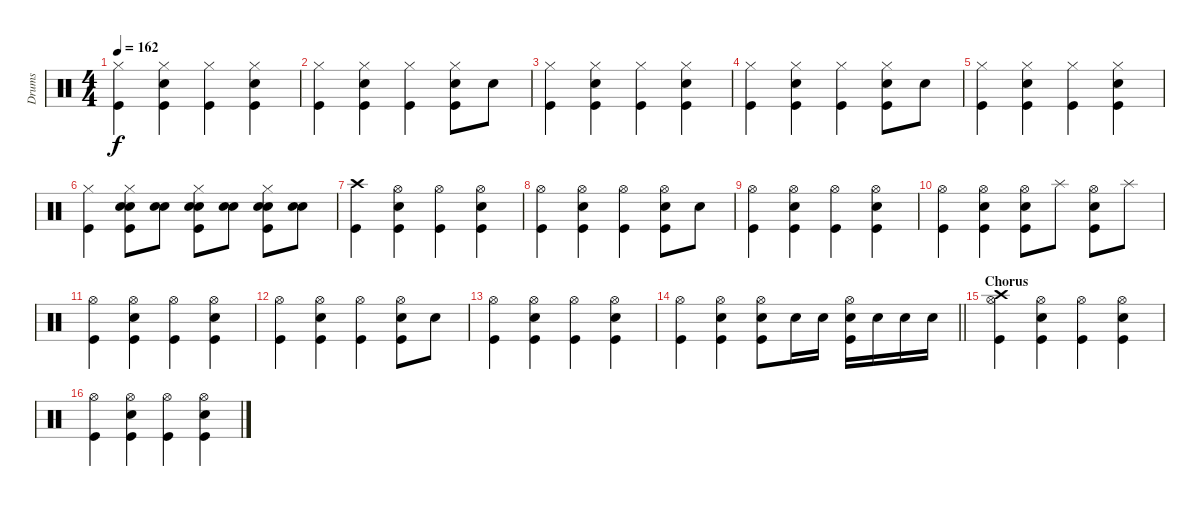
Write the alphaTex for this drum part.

\track ("Drums" "Drums") {instrument percussion}
\staff {score}
\articulation defaults
\ts (4 4)
\tempo 162
\clef neutral
\ks c
("Hi-Hat (closed)" "Kick (hit)").4{dy f} ("Hi-Hat (closed)" "Snare (hit) 2" "Kick (hit)").4 ("Hi-Hat (closed)" "Kick (hit)").4 ("Hi-Hat (closed)" "Snare (hit) 2" "Kick (hit)").4 |
("Hi-Hat (closed)" "Kick (hit)").4 ("Hi-Hat (closed)" "Snare (hit) 2" "Kick (hit)").4 ("Hi-Hat (closed)" "Kick (hit)").4 ("Hi-Hat (closed)" "Snare (hit) 2" "Kick (hit)").8 "Snare (hit) 2".8 |
("Hi-Hat (closed)" "Kick (hit)").4 ("Hi-Hat (closed)" "Snare (hit) 2" "Kick (hit)").4 ("Hi-Hat (closed)" "Kick (hit)").4 ("Hi-Hat (closed)" "Snare (hit) 2" "Kick (hit)").4 |
("Hi-Hat (closed)" "Kick (hit)").4 ("Hi-Hat (closed)" "Snare (hit) 2" "Kick (hit)").4 ("Hi-Hat (closed)" "Kick (hit)").4 ("Hi-Hat (closed)" "Snare (hit) 2" "Kick (hit)").8 "Snare (hit) 2".8 |
("Hi-Hat (closed)" "Kick (hit)").4 ("Hi-Hat (closed)" "Snare (hit) 2" "Kick (hit)").4 ("Hi-Hat (closed)" "Kick (hit)").4 ("Hi-Hat (closed)" "Snare (hit) 2" "Kick (hit)").4 |
("Hi-Hat (closed)" "Kick (hit)").4 ("Hi-Hat (closed)" "Snare (hit) 2" "Snare (hit) 2" "Kick (hit)").8 ("Snare (hit) 2" "Snare (hit) 2").8 ("Hi-Hat (closed)" "Snare (hit) 2" "Snare (hit) 2" "Kick (hit)").8 ("Snare (hit) 2" "Snare (hit) 2").8 ("Hi-Hat (closed)" "Snare (hit) 2" "Snare (hit) 2" "Kick (hit)").8 ("Snare (hit) 2" "Snare (hit) 2").8 |
("Crash high (hit)" "Kick (hit)").4 ("Hi-Hat (open)" "Snare (hit) 2" "Kick (hit)").4 ("Hi-Hat (open)" "Kick (hit)").4 ("Hi-Hat (open)" "Snare (hit) 2" "Kick (hit)").4 |
("Hi-Hat (open)" "Kick (hit)").4 ("Hi-Hat (open)" "Snare (hit) 2" "Kick (hit)").4 ("Hi-Hat (open)" "Kick (hit)").4 ("Hi-Hat (open)" "Snare (hit) 2" "Kick (hit)").8 "Snare (hit) 2".8 |
("Hi-Hat (open)" "Kick (hit)").4 ("Hi-Hat (open)" "Snare (hit) 2" "Kick (hit)").4 ("Hi-Hat (open)" "Kick (hit)").4 ("Hi-Hat (open)" "Snare (hit) 2" "Kick (hit)").4 |
("Hi-Hat (open)" "Kick (hit)").4 ("Hi-Hat (open)" "Snare (hit) 2" "Kick (hit)").4 ("Hi-Hat (open)" "Snare (hit) 2" "Kick (hit)").8 "Splash (hit)".8 ("Hi-Hat (open)" "Snare (hit) 2" "Kick (hit)").8 "Splash (hit)".8 |
("Hi-Hat (open)" "Kick (hit)").4 ("Hi-Hat (open)" "Snare (hit) 2" "Kick (hit)").4 ("Hi-Hat (open)" "Kick (hit)").4 ("Hi-Hat (open)" "Snare (hit) 2" "Kick (hit)").4 |
("Hi-Hat (open)" "Kick (hit)").4 ("Hi-Hat (open)" "Snare (hit) 2" "Kick (hit)").4 ("Hi-Hat (open)" "Kick (hit)").4 ("Hi-Hat (open)" "Snare (hit) 2" "Kick (hit)").8 "Snare (hit) 2".8 |
("Hi-Hat (open)" "Kick (hit)").4 ("Hi-Hat (open)" "Snare (hit) 2" "Kick (hit)").4 ("Hi-Hat (open)" "Kick (hit)").4 ("Hi-Hat (open)" "Snare (hit) 2" "Kick (hit)").4 |
\barLineRight lightlight
("Hi-Hat (open)" "Kick (hit)").4 ("Hi-Hat (open)" "Snare (hit) 2" "Kick (hit)").4 ("Hi-Hat (open)" "Snare (hit) 2" "Kick (hit)").8 "Snare (hit) 2".16 "Snare (hit) 2".16 ("Hi-Hat (open)" "Snare (hit) 2" "Kick (hit)").16 "Snare (hit) 2".16 "Snare (hit) 2".16 "Snare (hit) 2".16 |
\section ("" "Chorus")
("Crash high (hit)" "Hi-Hat (open)" "Kick (hit)").4 ("Hi-Hat (open)" "Snare (hit) 2" "Kick (hit)").4 ("Hi-Hat (open)" "Kick (hit)").4 ("Hi-Hat (open)" "Snare (hit) 2" "Kick (hit)").4 |
("Hi-Hat (open)" "Kick (hit)").4 ("Hi-Hat (open)" "Snare (hit) 2" "Kick (hit)").4 ("Hi-Hat (open)" "Kick (hit)").4 ("Hi-Hat (open)" "Snare (hit) 2" "Kick (hit)").4
